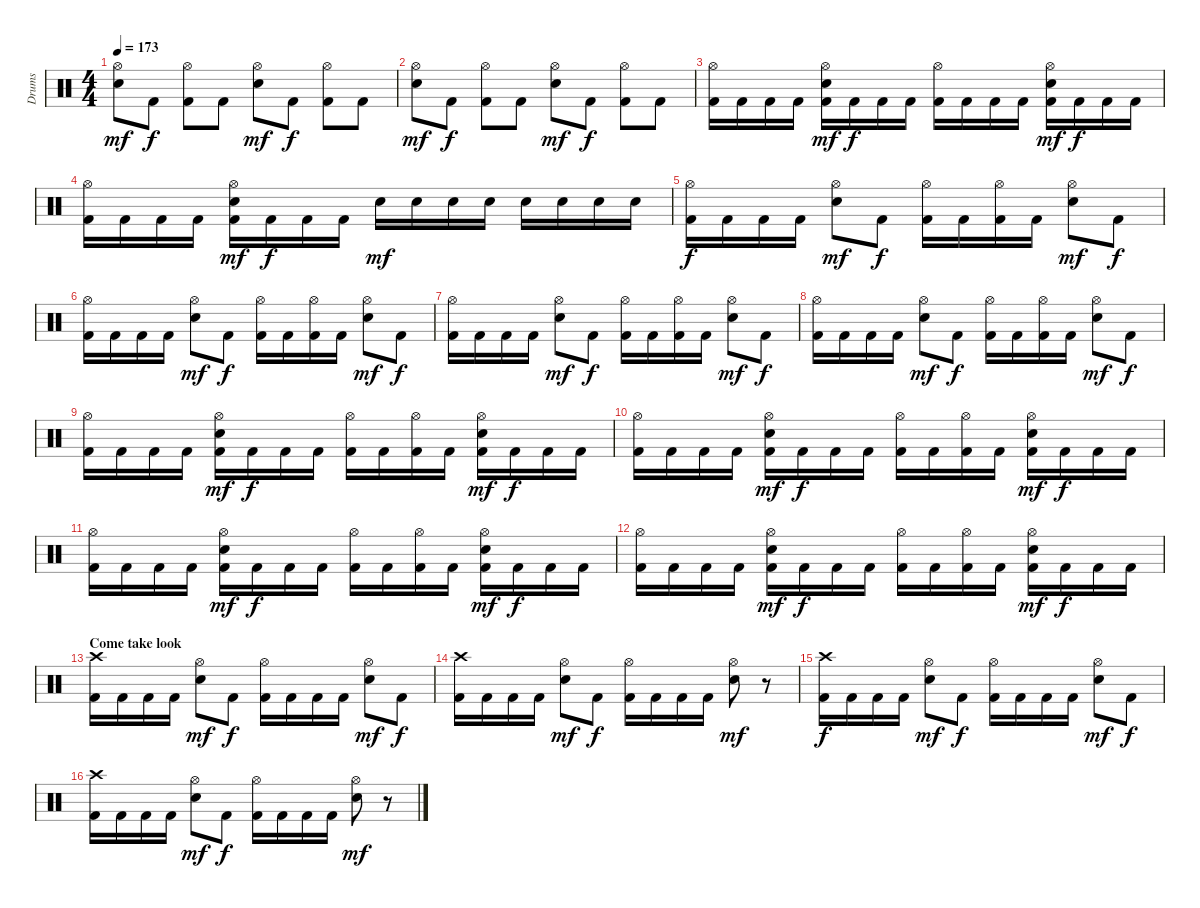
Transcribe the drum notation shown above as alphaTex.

\track ("Drums" "Drums") {instrument percussion}
\staff {score}
\articulation defaults
\ts (4 4)
\tempo 173
\clef neutral
\ks c
("Hi-Hat (open)" "Snare (hit) 2").8{dy mf} "Kick (hit) 2".8{dy f} ("Hi-Hat (open)" "Kick (hit) 2").8 "Kick (hit) 2".8 ("Hi-Hat (open)" "Snare (hit) 2").8{dy mf} "Kick (hit) 2".8{dy f} ("Hi-Hat (open)" "Kick (hit) 2").8 "Kick (hit) 2".8 |
("Hi-Hat (open)" "Snare (hit) 2").8{dy mf} "Kick (hit) 2".8{dy f} ("Hi-Hat (open)" "Kick (hit) 2").8 "Kick (hit) 2".8 ("Hi-Hat (open)" "Snare (hit) 2").8{dy mf} "Kick (hit) 2".8{dy f} ("Hi-Hat (open)" "Kick (hit) 2").8 "Kick (hit) 2".8 |
("Hi-Hat (open)" "Kick (hit) 2").16 "Kick (hit) 2".16 "Kick (hit) 2".16 "Kick (hit) 2".16 ("Hi-Hat (open)" "Snare (hit) 2" "Kick (hit) 2").16{dy mf} "Kick (hit) 2".16{dy f} "Kick (hit) 2".16 "Kick (hit) 2".16 ("Hi-Hat (open)" "Kick (hit) 2").16 "Kick (hit) 2".16 "Kick (hit) 2".16 "Kick (hit) 2".16 ("Hi-Hat (open)" "Snare (hit) 2" "Kick (hit) 2").16{dy mf} "Kick (hit) 2".16{dy f} "Kick (hit) 2".16 "Kick (hit) 2".16 |
("Hi-Hat (open)" "Kick (hit) 2").16 "Kick (hit) 2".16 "Kick (hit) 2".16 "Kick (hit) 2".16 ("Hi-Hat (open)" "Snare (hit) 2" "Kick (hit) 2").16{dy mf} "Kick (hit) 2".16{dy f} "Kick (hit) 2".16 "Kick (hit) 2".16 "Snare (hit) 2".16{dy mf} "Snare (hit) 2".16 "Snare (hit) 2".16 "Snare (hit) 2".16 "Snare (hit) 2".16 "Snare (hit) 2".16 "Snare (hit) 2".16 "Snare (hit) 2".16 |
\section ("" "")
("Hi-Hat (open)" "Kick (hit) 2").16{dy f} "Kick (hit) 2".16 "Kick (hit) 2".16 "Kick (hit) 2".16 ("Hi-Hat (open)" "Snare (hit) 2").8{dy mf} "Kick (hit) 2".8{dy f} ("Hi-Hat (open)" "Kick (hit) 2").16 "Kick (hit) 2".16 ("Hi-Hat (open)" "Kick (hit) 2").16 "Kick (hit) 2".16 ("Hi-Hat (open)" "Snare (hit) 2").8{dy mf} "Kick (hit) 2".8{dy f} |
("Hi-Hat (open)" "Kick (hit) 2").16 "Kick (hit) 2".16 "Kick (hit) 2".16 "Kick (hit) 2".16 ("Hi-Hat (open)" "Snare (hit) 2").8{dy mf} "Kick (hit) 2".8{dy f} ("Hi-Hat (open)" "Kick (hit) 2").16 "Kick (hit) 2".16 ("Hi-Hat (open)" "Kick (hit) 2").16 "Kick (hit) 2".16 ("Hi-Hat (open)" "Snare (hit) 2").8{dy mf} "Kick (hit) 2".8{dy f} |
("Hi-Hat (open)" "Kick (hit) 2").16 "Kick (hit) 2".16 "Kick (hit) 2".16 "Kick (hit) 2".16 ("Hi-Hat (open)" "Snare (hit) 2").8{dy mf} "Kick (hit) 2".8{dy f} ("Hi-Hat (open)" "Kick (hit) 2").16 "Kick (hit) 2".16 ("Hi-Hat (open)" "Kick (hit) 2").16 "Kick (hit) 2".16 ("Hi-Hat (open)" "Snare (hit) 2").8{dy mf} "Kick (hit) 2".8{dy f} |
("Hi-Hat (open)" "Kick (hit) 2").16 "Kick (hit) 2".16 "Kick (hit) 2".16 "Kick (hit) 2".16 ("Hi-Hat (open)" "Snare (hit) 2").8{dy mf} "Kick (hit) 2".8{dy f} ("Hi-Hat (open)" "Kick (hit) 2").16 "Kick (hit) 2".16 ("Hi-Hat (open)" "Kick (hit) 2").16 "Kick (hit) 2".16 ("Hi-Hat (open)" "Snare (hit) 2").8{dy mf} "Kick (hit) 2".8{dy f} |
("Hi-Hat (open)" "Kick (hit) 2").16 "Kick (hit) 2".16 "Kick (hit) 2".16 "Kick (hit) 2".16 ("Hi-Hat (open)" "Snare (hit) 2" "Kick (hit) 2").16{dy mf} "Kick (hit) 2".16{dy f} "Kick (hit) 2".16 "Kick (hit) 2".16 ("Hi-Hat (open)" "Kick (hit) 2").16 "Kick (hit) 2".16 ("Hi-Hat (open)" "Kick (hit) 2").16 "Kick (hit) 2".16 ("Hi-Hat (open)" "Snare (hit) 2" "Kick (hit) 2").16{dy mf} "Kick (hit) 2".16{dy f} "Kick (hit) 2".16 "Kick (hit) 2".16 |
("Hi-Hat (open)" "Kick (hit) 2").16 "Kick (hit) 2".16 "Kick (hit) 2".16 "Kick (hit) 2".16 ("Hi-Hat (open)" "Snare (hit) 2" "Kick (hit) 2").16{dy mf} "Kick (hit) 2".16{dy f} "Kick (hit) 2".16 "Kick (hit) 2".16 ("Hi-Hat (open)" "Kick (hit) 2").16 "Kick (hit) 2".16 ("Hi-Hat (open)" "Kick (hit) 2").16 "Kick (hit) 2".16 ("Hi-Hat (open)" "Snare (hit) 2" "Kick (hit) 2").16{dy mf} "Kick (hit) 2".16{dy f} "Kick (hit) 2".16 "Kick (hit) 2".16 |
("Hi-Hat (open)" "Kick (hit) 2").16 "Kick (hit) 2".16 "Kick (hit) 2".16 "Kick (hit) 2".16 ("Hi-Hat (open)" "Snare (hit) 2" "Kick (hit) 2").16{dy mf} "Kick (hit) 2".16{dy f} "Kick (hit) 2".16 "Kick (hit) 2".16 ("Hi-Hat (open)" "Kick (hit) 2").16 "Kick (hit) 2".16 ("Hi-Hat (open)" "Kick (hit) 2").16 "Kick (hit) 2".16 ("Hi-Hat (open)" "Snare (hit) 2" "Kick (hit) 2").16{dy mf} "Kick (hit) 2".16{dy f} "Kick (hit) 2".16 "Kick (hit) 2".16 |
("Hi-Hat (open)" "Kick (hit) 2").16 "Kick (hit) 2".16 "Kick (hit) 2".16 "Kick (hit) 2".16 ("Hi-Hat (open)" "Snare (hit) 2" "Kick (hit) 2").16{dy mf} "Kick (hit) 2".16{dy f} "Kick (hit) 2".16 "Kick (hit) 2".16 ("Hi-Hat (open)" "Kick (hit) 2").16 "Kick (hit) 2".16 ("Hi-Hat (open)" "Kick (hit) 2").16 "Kick (hit) 2".16 ("Hi-Hat (open)" "Snare (hit) 2" "Kick (hit) 2").16{dy mf} "Kick (hit) 2".16{dy f} "Kick (hit) 2".16 "Kick (hit) 2".16 |
\section ("" "Come take look")
("Crash high (hit)" "Kick (hit) 2").16 "Kick (hit) 2".16 "Kick (hit) 2".16 "Kick (hit) 2".16 ("Hi-Hat (open)" "Snare (hit) 2").8{dy mf} "Kick (hit) 2".8{dy f} ("Hi-Hat (open)" "Kick (hit) 2").16 "Kick (hit) 2".16 "Kick (hit) 2".16 "Kick (hit) 2".16 ("Hi-Hat (open)" "Snare (hit) 2").8{dy mf} "Kick (hit) 2".8{dy f} |
("Crash high (hit)" "Kick (hit) 2").16 "Kick (hit) 2".16 "Kick (hit) 2".16 "Kick (hit) 2".16 ("Hi-Hat (open)" "Snare (hit) 2").8{dy mf} "Kick (hit) 2".8{dy f} ("Hi-Hat (open)" "Kick (hit) 2").16 "Kick (hit) 2".16 "Kick (hit) 2".16 "Kick (hit) 2".16 ("Hi-Hat (open)" "Snare (hit) 2").8{dy mf} r.8 |
("Crash high (hit)" "Kick (hit) 2").16{dy f} "Kick (hit) 2".16 "Kick (hit) 2".16 "Kick (hit) 2".16 ("Hi-Hat (open)" "Snare (hit) 2").8{dy mf} "Kick (hit) 2".8{dy f} ("Hi-Hat (open)" "Kick (hit) 2").16 "Kick (hit) 2".16 "Kick (hit) 2".16 "Kick (hit) 2".16 ("Hi-Hat (open)" "Snare (hit) 2").8{dy mf} "Kick (hit) 2".8{dy f} |
("Crash high (hit)" "Kick (hit) 2").16 "Kick (hit) 2".16 "Kick (hit) 2".16 "Kick (hit) 2".16 ("Hi-Hat (open)" "Snare (hit) 2").8{dy mf} "Kick (hit) 2".8{dy f} ("Hi-Hat (open)" "Kick (hit) 2").16 "Kick (hit) 2".16 "Kick (hit) 2".16 "Kick (hit) 2".16 ("Hi-Hat (open)" "Snare (hit) 2").8{dy mf} r.8
